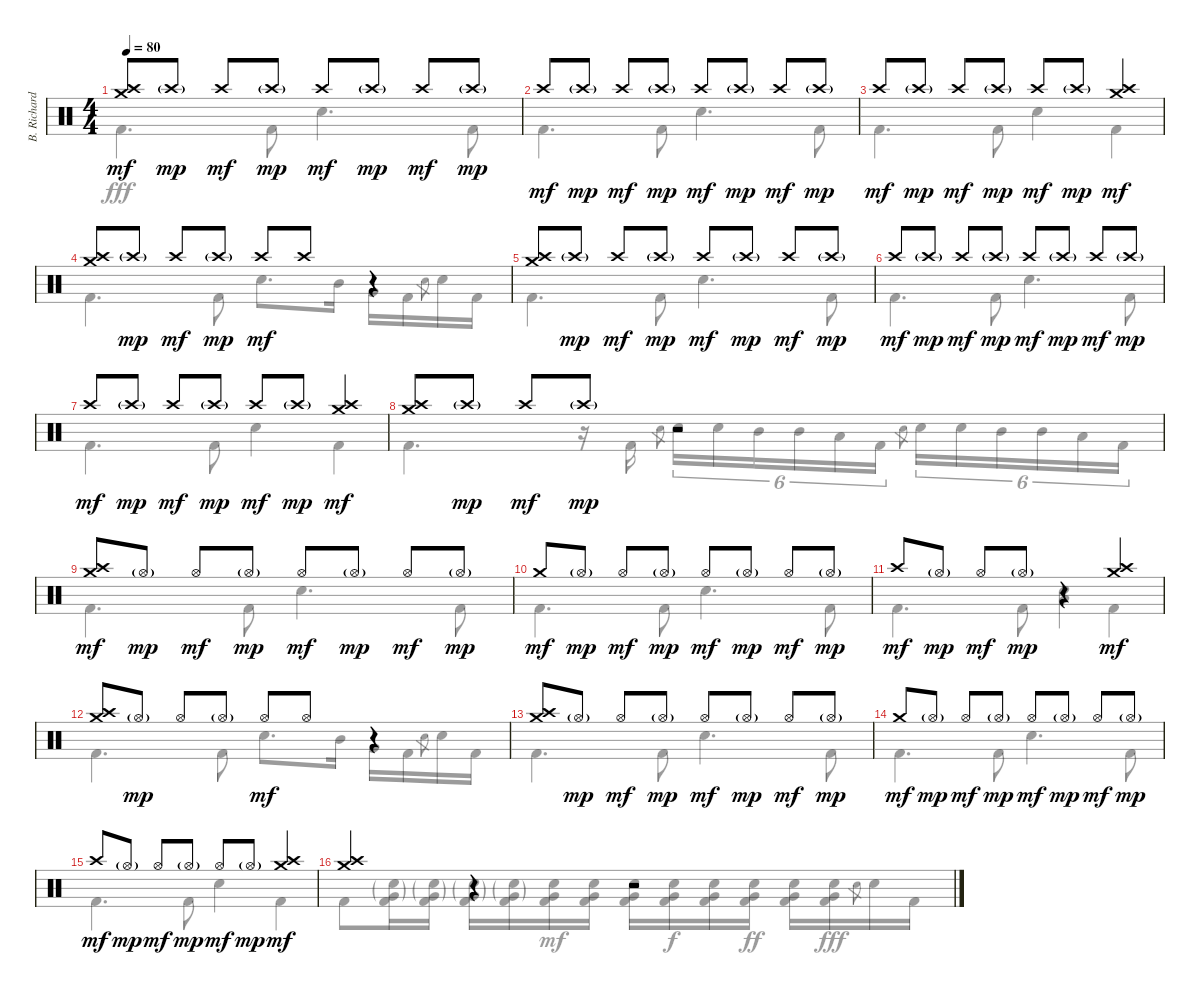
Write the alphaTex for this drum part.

\track ("B. Richardson Drums" "B. Richard") {instrument percussion}
\staff {score}
\articulation defaults
\voice
\ts (4 4)
\tempo 80
\clef neutral
\ks c
("Crash high (hit)" "Crash medium (hit)").8{dy mf} "Crash high (hit)"{g}.8{dy mp} "Crash high (hit)".8{dy mf} "Crash high (hit)"{g}.8{dy mp} "Crash high (hit)".8{dy mf} "Crash high (hit)"{g}.8{dy mp} "Crash high (hit)".8{dy mf} "Crash high (hit)"{g}.8{dy mp} |
"Crash high (hit)".8{dy mf} "Crash high (hit)"{g}.8{dy mp} "Crash high (hit)".8{dy mf} "Crash high (hit)"{g}.8{dy mp} "Crash high (hit)".8{dy mf} "Crash high (hit)"{g}.8{dy mp} "Crash high (hit)".8{dy mf} "Crash high (hit)"{g}.8{dy mp} |
"Crash high (hit)".8{dy mf} "Crash high (hit)"{g}.8{dy mp} "Crash high (hit)".8{dy mf} "Crash high (hit)"{g}.8{dy mp} "Crash high (hit)".8{dy mf} "Crash high (hit)"{g}.8{dy mp} ("Crash high (hit)" "Crash medium (hit)").4{dy mf} |
("Crash high (hit)" "Crash medium (hit)").8 "Crash high (hit)"{g}.8{dy mp} "Crash high (hit)".8{dy mf} "Crash high (hit)"{g}.8{dy mp} "Crash high (hit)".8{dy mf} "Crash high (hit)".8 r.4 |
("Crash high (hit)" "Crash medium (hit)").8 "Crash high (hit)"{g}.8{dy mp} "Crash high (hit)".8{dy mf} "Crash high (hit)"{g}.8{dy mp} "Crash high (hit)".8{dy mf} "Crash high (hit)"{g}.8{dy mp} "Crash high (hit)".8{dy mf} "Crash high (hit)"{g}.8{dy mp} |
"Crash high (hit)".8{dy mf} "Crash high (hit)"{g}.8{dy mp} "Crash high (hit)".8{dy mf} "Crash high (hit)"{g}.8{dy mp} "Crash high (hit)".8{dy mf} "Crash high (hit)"{g}.8{dy mp} "Crash high (hit)".8{dy mf} "Crash high (hit)"{g}.8{dy mp} |
"Crash high (hit)".8{dy mf} "Crash high (hit)"{g}.8{dy mp} "Crash high (hit)".8{dy mf} "Crash high (hit)"{g}.8{dy mp} "Crash high (hit)".8{dy mf} "Crash high (hit)"{g}.8{dy mp} ("Crash high (hit)" "Crash medium (hit)").4{dy mf} |
("Crash high (hit)" "Crash medium (hit)").8 "Crash high (hit)"{g}.8{dy mp} "Crash high (hit)".8{dy mf} "Crash high (hit)"{g}.8{dy mp} r.2 |
("Crash high (hit)" "Crash medium (hit)").8{dy mf} "Hi-Hat (open)"{g}.8{dy mp} "Hi-Hat (open)".8{dy mf} "Hi-Hat (open)"{g}.8{dy mp} "Hi-Hat (open)".8{dy mf} "Hi-Hat (open)"{g}.8{dy mp} "Hi-Hat (open)".8{dy mf} "Hi-Hat (open)"{g}.8{dy mp} |
"Crash medium (hit)".8{dy mf} "Hi-Hat (open)"{g}.8{dy mp} "Hi-Hat (open)".8{dy mf} "Hi-Hat (open)"{g}.8{dy mp} "Hi-Hat (open)".8{dy mf} "Hi-Hat (open)"{g}.8{dy mp} "Hi-Hat (open)".8{dy mf} "Hi-Hat (open)"{g}.8{dy mp} |
"Crash high (hit)".8{dy mf} "Hi-Hat (open)"{g}.8{dy mp} "Hi-Hat (open)".8{dy mf} "Hi-Hat (open)"{g}.8{dy mp} r.4 ("Crash high (hit)" "Crash medium (hit)").4{dy mf} |
("Crash high (hit)" "Crash medium (hit)").8 "Hi-Hat (open)"{g}.8{dy mp} "Hi-Hat (open)".8 "Hi-Hat (open)"{g}.8 "Hi-Hat (open)".8{dy mf} "Hi-Hat (open)".8 r.4 |
("Crash high (hit)" "Crash medium (hit)").8 "Hi-Hat (open)"{g}.8{dy mp} "Hi-Hat (open)".8{dy mf} "Hi-Hat (open)"{g}.8{dy mp} "Hi-Hat (open)".8{dy mf} "Hi-Hat (open)"{g}.8{dy mp} "Hi-Hat (open)".8{dy mf} "Hi-Hat (open)"{g}.8{dy mp} |
"Crash medium (hit)".8{dy mf} "Hi-Hat (open)"{g}.8{dy mp} "Hi-Hat (open)".8{dy mf} "Hi-Hat (open)"{g}.8{dy mp} "Hi-Hat (open)".8{dy mf} "Hi-Hat (open)"{g}.8{dy mp} "Hi-Hat (open)".8{dy mf} "Hi-Hat (open)"{g}.8{dy mp} |
"Crash high (hit)".8{dy mf} "Hi-Hat (open)"{g}.8{dy mp} "Hi-Hat (open)".8{dy mf} "Hi-Hat (open)"{g}.8{dy mp} "Hi-Hat (open)".8{dy mf} "Hi-Hat (open)"{g}.8{dy mp} ("Crash high (hit)" "Crash medium (hit)").4{dy mf} |
("Crash high (hit)" "Crash medium (hit)").4 r.4 r.2
\voice
\clef neutral
\ottava regular
\simile none
\ks c "Kick (hit) 2".4{d dy fff} "Kick (hit) 2".8 "Electric Snare (hit)".4{d} "Kick (hit) 2".8
|
"Kick (hit) 2".4{d} "Kick (hit) 2".8 "Electric Snare (hit)".4{d} "Kick (hit) 2".8 |
"Kick (hit) 2".4{d} "Kick (hit) 2".8 "Electric Snare (hit)".4 "Kick (hit) 2".4 |
"Kick (hit) 2".4{d} "Kick (hit) 2".8 "Electric Snare (hit)".8{d} "Mid Tom (hit)".16 "Very Low Tom (hit)".16 "Kick (hit) 2".16 "Electric Snare (hit)".8{gr} "Electric Snare (hit)".16 "Kick (hit) 2".16 |
"Kick (hit) 2".4{d} "Kick (hit) 2".8 "Electric Snare (hit)".4{d} "Kick (hit) 2".8 |
"Kick (hit) 2".4{d} "Kick (hit) 2".8 "Electric Snare (hit)".4{d} "Kick (hit) 2".8 |
"Kick (hit) 2".4{d} "Kick (hit) 2".8 "Electric Snare (hit)".4 "Kick (hit) 2".4 |
"Kick (hit) 2".4{d} r.16 "Kick (hit) 2".16 "Electric Snare (hit)".8{gr} "Electric Snare (hit)".16{tu (6 4)} "Electric Snare (hit)".16{tu (6 4)} "Mid Tom (hit)".16{tu (6 4)} "Mid Tom (hit)".16{tu (6 4)} "Low Tom (hit)".16{tu (6 4)} "Kick (hit) 2".16{tu (6 4)} "Electric Snare (hit)".8{gr} "Electric Snare (hit)".16{tu (6 4)} "Electric Snare (hit)".16{tu (6 4)} "Mid Tom (hit)".16{tu (6 4)} "Mid Tom (hit)".16{tu (6 4)} "Low Tom (hit)".16{tu (6 4)} "Kick (hit) 2".16{tu (6 4)} |
"Kick (hit) 2".4{d} "Kick (hit) 2".8 "Electric Snare (hit)".4{d} "Kick (hit) 2".8 |
"Kick (hit) 2".4{d} "Kick (hit) 2".8 "Electric Snare (hit)".4{d} "Kick (hit) 2".8 |
"Kick (hit) 2".4{d} "Kick (hit) 2".8 ("Electric Snare (hit)" "Low Tom (hit)").4 "Kick (hit) 2".4 |
"Kick (hit) 2".4{d} "Kick (hit) 2".8 "Electric Snare (hit)".8{d} "Mid Tom (hit)".16 "Very Low Tom (hit)".16 "Kick (hit) 2".16 "Electric Snare (hit)".8{gr} "Electric Snare (hit)".16 "Kick (hit) 2".16 |
"Kick (hit) 2".4{d} "Kick (hit) 2".8 "Electric Snare (hit)".4{d} "Kick (hit) 2".8 |
"Kick (hit) 2".4{d} "Kick (hit) 2".8 "Electric Snare (hit)".4{d} "Kick (hit) 2".8 |
"Kick (hit) 2".4{d} "Kick (hit) 2".8 "Electric Snare (hit)".4 "Kick (hit) 2".4 |
"Kick (hit) 2".8 ("Electric Snare (hit)"{g} "Very Low Tom (hit)"{g} "Kick (hit) 2").16 ("Electric Snare (hit)"{g} "Very Low Tom (hit)"{g} "Kick (hit) 2").16 ("Electric Snare (hit)"{g} "Very Low Tom (hit)"{g} "Kick (hit) 2").16 ("Electric Snare (hit)"{g} "Very Low Tom (hit)"{g} "Kick (hit) 2").16 ("Electric Snare (hit)" "Very Low Tom (hit)" "Kick (hit) 2").16{dy mf} ("Electric Snare (hit)" "Very Low Tom (hit)" "Kick (hit) 2").16 ("Electric Snare (hit)" "Very Low Tom (hit)" "Kick (hit) 2").16 ("Electric Snare (hit)" "Very Low Tom (hit)" "Kick (hit) 2").16{dy f} ("Electric Snare (hit)" "Very Low Tom (hit)" "Kick (hit) 2").16 ("Electric Snare (hit)" "Very Low Tom (hit)" "Kick (hit) 2").16{dy ff} ("Electric Snare (hit)" "Very Low Tom (hit)" "Kick (hit) 2").16 ("Electric Snare (hit)" "Very Low Tom (hit)" "Kick (hit) 2").16{dy fff} "Electric Snare (hit)".8{gr} "Electric Snare (hit)".16 "Kick (hit) 2".16
